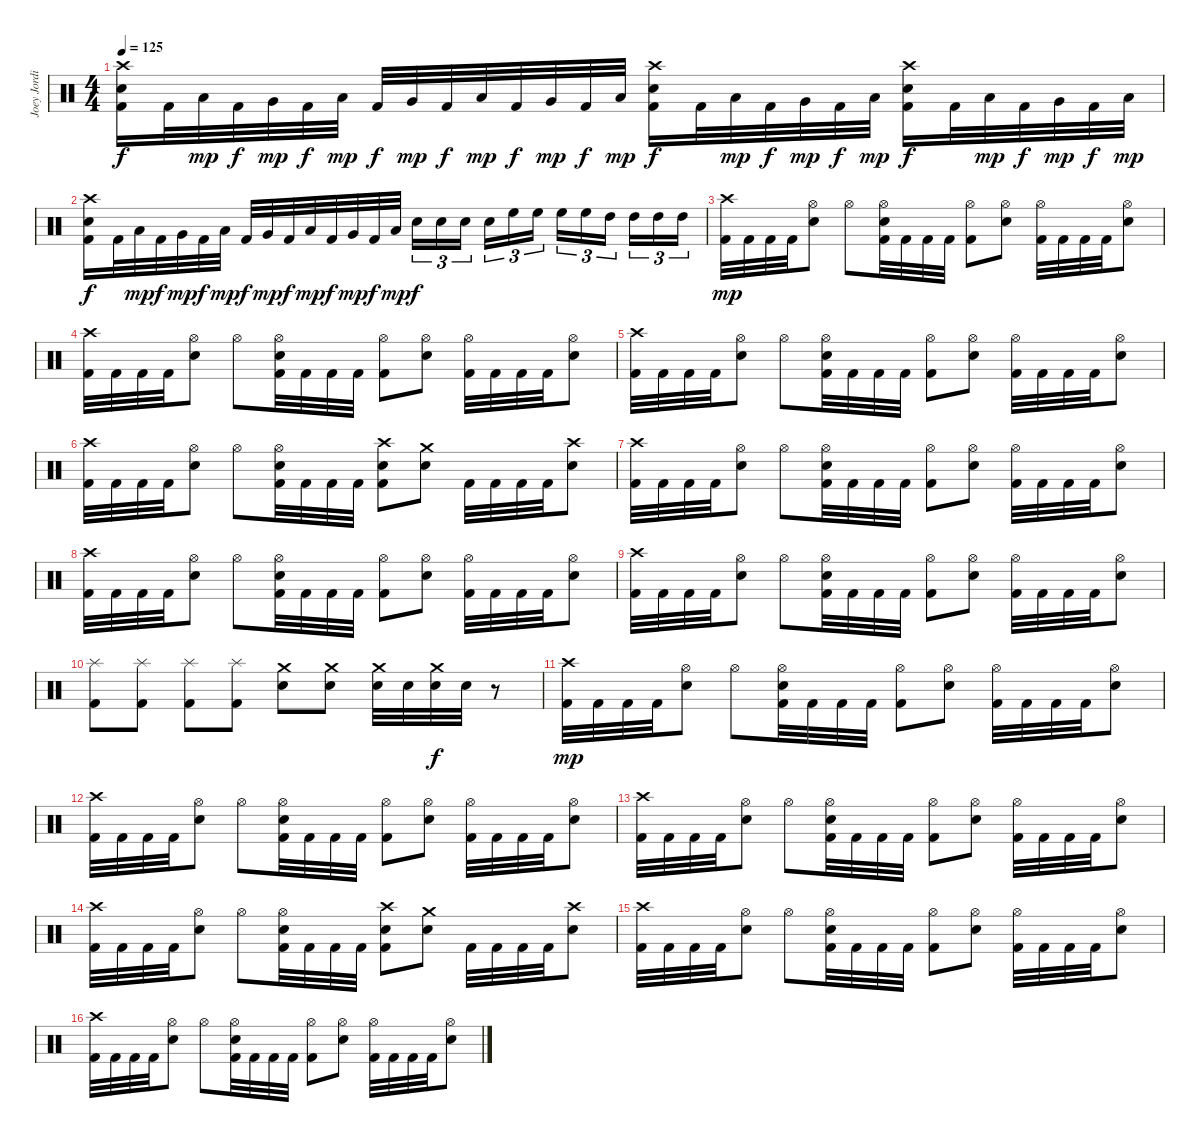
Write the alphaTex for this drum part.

\track ("Joey Jordison" "Joey Jordi") {instrument percussion}
\staff {score}
\articulation defaults
\ts (4 4)
\tempo 125
\clef neutral
\ks c
("Crash high (hit)" "Electric Snare (hit)" "Kick (hit) 2").16{dy f} "Kick (hit) 2".32 "Low Tom (hit)".32{dy mp} "Kick (hit) 2".32{dy f} "Very Low Tom (hit)".32{dy mp} "Kick (hit) 2".32{dy f} "Low Tom (hit)".32{dy mp} "Kick (hit) 2".32{dy f} "Very Low Tom (hit)".32{dy mp} "Kick (hit) 2".32{dy f} "Low Tom (hit)".32{dy mp} "Kick (hit) 2".32{dy f} "Very Low Tom (hit)".32{dy mp} "Kick (hit) 2".32{dy f} "Low Tom (hit)".32{dy mp} ("Crash high (hit)" "Electric Snare (hit)" "Kick (hit) 2").16{dy f} "Kick (hit) 2".32 "Low Tom (hit)".32{dy mp} "Kick (hit) 2".32{dy f} "Very Low Tom (hit)".32{dy mp} "Kick (hit) 2".32{dy f} "Low Tom (hit)".32{dy mp} ("Crash high (hit)" "Electric Snare (hit)" "Kick (hit) 2").16{dy f} "Kick (hit) 2".32 "Low Tom (hit)".32{dy mp} "Kick (hit) 2".32{dy f} "Very Low Tom (hit)".32{dy mp} "Kick (hit) 2".32{dy f} "Low Tom (hit)".32{dy mp} |
("Crash high (hit)" "Electric Snare (hit)" "Kick (hit) 2").16{dy f} "Kick (hit) 2".32 "Low Tom (hit)".32{dy mp} "Kick (hit) 2".32{dy f} "Very Low Tom (hit)".32{dy mp} "Kick (hit) 2".32{dy f} "Low Tom (hit)".32{dy mp} "Kick (hit) 2".32{dy f} "Very Low Tom (hit)".32{dy mp} "Kick (hit) 2".32{dy f} "Low Tom (hit)".32{dy mp} "Kick (hit) 2".32{dy f} "Very Low Tom (hit)".32{dy mp} "Kick (hit) 2".32{dy f} "Low Tom (hit)".32{dy mp} "Electric Snare (hit)".16{tu (3 2) dy f} "Electric Snare (hit)".16{tu (3 2)} "Electric Snare (hit)".16{tu (3 2) beam splitsecondary} "Electric Snare (hit)".16{tu (3 2)} "High Floor Tom (hit)".16{tu (3 2)} "High Floor Tom (hit)".16{tu (3 2)} "High Floor Tom (hit)".16{tu (3 2)} "High Floor Tom (hit)".16{tu (3 2)} "High Tom (hit)".16{tu (3 2) beam splitsecondary} "High Tom (hit)".16{tu (3 2)} "High Tom (hit)".16{tu (3 2)} "High Tom (hit)".16{tu (3 2)} |
("Crash high (hit)" "Kick (hit) 2").32{dy mp} "Kick (hit) 2".32 "Kick (hit) 2".32 "Kick (hit) 2".32 ("Hi-Hat (open)" "Electric Snare (hit)").8 "Hi-Hat (open)".8 ("Hi-Hat (open)" "Electric Snare (hit)" "Kick (hit) 2").32 "Kick (hit) 2".32 "Kick (hit) 2".32 "Kick (hit) 2".32 ("Hi-Hat (open)" "Kick (hit) 2").8 ("Hi-Hat (open)" "Electric Snare (hit)").8 ("Hi-Hat (open)" "Kick (hit) 2").32 "Kick (hit) 2".32 "Kick (hit) 2".32 "Kick (hit) 2".32 ("Hi-Hat (open)" "Electric Snare (hit)").8 |
("Crash high (hit)" "Kick (hit) 2").32 "Kick (hit) 2".32 "Kick (hit) 2".32 "Kick (hit) 2".32 ("Hi-Hat (open)" "Electric Snare (hit)").8 "Hi-Hat (open)".8 ("Hi-Hat (open)" "Electric Snare (hit)" "Kick (hit) 2").32 "Kick (hit) 2".32 "Kick (hit) 2".32 "Kick (hit) 2".32 ("Hi-Hat (open)" "Kick (hit) 2").8 ("Hi-Hat (open)" "Electric Snare (hit)").8 ("Hi-Hat (open)" "Kick (hit) 2").32 "Kick (hit) 2".32 "Kick (hit) 2".32 "Kick (hit) 2".32 ("Hi-Hat (open)" "Electric Snare (hit)").8 |
("Crash high (hit)" "Kick (hit) 2").32 "Kick (hit) 2".32 "Kick (hit) 2".32 "Kick (hit) 2".32 ("Hi-Hat (open)" "Electric Snare (hit)").8 "Hi-Hat (open)".8 ("Hi-Hat (open)" "Electric Snare (hit)" "Kick (hit) 2").32 "Kick (hit) 2".32 "Kick (hit) 2".32 "Kick (hit) 2".32 ("Hi-Hat (open)" "Kick (hit) 2").8 ("Hi-Hat (open)" "Electric Snare (hit)").8 ("Hi-Hat (open)" "Kick (hit) 2").32 "Kick (hit) 2".32 "Kick (hit) 2".32 "Kick (hit) 2".32 ("Hi-Hat (open)" "Electric Snare (hit)").8 |
("Crash high (hit)" "Kick (hit) 2").32 "Kick (hit) 2".32 "Kick (hit) 2".32 "Kick (hit) 2".32 ("Hi-Hat (open)" "Electric Snare (hit)").8 "Hi-Hat (open)".8 ("Hi-Hat (open)" "Electric Snare (hit)" "Kick (hit) 2").32 "Kick (hit) 2".32 "Kick (hit) 2".32 "Kick (hit) 2".32 ("Crash high (hit)" "Electric Snare (hit)" "Kick (hit) 2").8 ("Crash medium (hit)" "Electric Snare (hit)").8 "Kick (hit) 2".32 "Kick (hit) 2".32 "Kick (hit) 2".32 "Kick (hit) 2".32 ("Crash high (hit)" "Electric Snare (hit)").8 |
("Crash high (hit)" "Kick (hit) 2").32 "Kick (hit) 2".32 "Kick (hit) 2".32 "Kick (hit) 2".32 ("Hi-Hat (open)" "Electric Snare (hit)").8 "Hi-Hat (open)".8 ("Hi-Hat (open)" "Electric Snare (hit)" "Kick (hit) 2").32 "Kick (hit) 2".32 "Kick (hit) 2".32 "Kick (hit) 2".32 ("Hi-Hat (open)" "Kick (hit) 2").8 ("Hi-Hat (open)" "Electric Snare (hit)").8 ("Hi-Hat (open)" "Kick (hit) 2").32 "Kick (hit) 2".32 "Kick (hit) 2".32 "Kick (hit) 2".32 ("Hi-Hat (open)" "Electric Snare (hit)").8 |
("Crash high (hit)" "Kick (hit) 2").32 "Kick (hit) 2".32 "Kick (hit) 2".32 "Kick (hit) 2".32 ("Hi-Hat (open)" "Electric Snare (hit)").8 "Hi-Hat (open)".8 ("Hi-Hat (open)" "Electric Snare (hit)" "Kick (hit) 2").32 "Kick (hit) 2".32 "Kick (hit) 2".32 "Kick (hit) 2".32 ("Hi-Hat (open)" "Kick (hit) 2").8 ("Hi-Hat (open)" "Electric Snare (hit)").8 ("Hi-Hat (open)" "Kick (hit) 2").32 "Kick (hit) 2".32 "Kick (hit) 2".32 "Kick (hit) 2".32 ("Hi-Hat (open)" "Electric Snare (hit)").8 |
("Crash high (hit)" "Kick (hit) 2").32 "Kick (hit) 2".32 "Kick (hit) 2".32 "Kick (hit) 2".32 ("Hi-Hat (open)" "Electric Snare (hit)").8 "Hi-Hat (open)".8 ("Hi-Hat (open)" "Electric Snare (hit)" "Kick (hit) 2").32 "Kick (hit) 2".32 "Kick (hit) 2".32 "Kick (hit) 2".32 ("Hi-Hat (open)" "Kick (hit) 2").8 ("Hi-Hat (open)" "Electric Snare (hit)").8 ("Hi-Hat (open)" "Kick (hit) 2").32 "Kick (hit) 2".32 "Kick (hit) 2".32 "Kick (hit) 2".32 ("Hi-Hat (open)" "Electric Snare (hit)").8 |
("Splash (hit)" "Kick (hit) 2").8 ("Splash (hit)" "Kick (hit) 2").8 ("Splash (hit)" "Kick (hit) 2").8 ("Splash (hit)" "Kick (hit) 2").8 ("Crash medium (hit)" "Electric Snare (hit)").8 ("Crash medium (hit)" "Electric Snare (hit)").8 ("Crash medium (hit)" "Electric Snare (hit)").32 "Electric Snare (hit)".32 ("Crash medium (hit)" "Electric Snare (hit)").32{dy f} "Electric Snare (hit)".32 r.8 |
("Crash high (hit)" "Kick (hit) 2").32{dy mp} "Kick (hit) 2".32 "Kick (hit) 2".32 "Kick (hit) 2".32 ("Hi-Hat (open)" "Electric Snare (hit)").8 "Hi-Hat (open)".8 ("Hi-Hat (open)" "Electric Snare (hit)" "Kick (hit) 2").32 "Kick (hit) 2".32 "Kick (hit) 2".32 "Kick (hit) 2".32 ("Hi-Hat (open)" "Kick (hit) 2").8 ("Hi-Hat (open)" "Electric Snare (hit)").8 ("Hi-Hat (open)" "Kick (hit) 2").32 "Kick (hit) 2".32 "Kick (hit) 2".32 "Kick (hit) 2".32 ("Hi-Hat (open)" "Electric Snare (hit)").8 |
("Crash high (hit)" "Kick (hit) 2").32 "Kick (hit) 2".32 "Kick (hit) 2".32 "Kick (hit) 2".32 ("Hi-Hat (open)" "Electric Snare (hit)").8 "Hi-Hat (open)".8 ("Hi-Hat (open)" "Electric Snare (hit)" "Kick (hit) 2").32 "Kick (hit) 2".32 "Kick (hit) 2".32 "Kick (hit) 2".32 ("Hi-Hat (open)" "Kick (hit) 2").8 ("Hi-Hat (open)" "Electric Snare (hit)").8 ("Hi-Hat (open)" "Kick (hit) 2").32 "Kick (hit) 2".32 "Kick (hit) 2".32 "Kick (hit) 2".32 ("Hi-Hat (open)" "Electric Snare (hit)").8 |
("Crash high (hit)" "Kick (hit) 2").32 "Kick (hit) 2".32 "Kick (hit) 2".32 "Kick (hit) 2".32 ("Hi-Hat (open)" "Electric Snare (hit)").8 "Hi-Hat (open)".8 ("Hi-Hat (open)" "Electric Snare (hit)" "Kick (hit) 2").32 "Kick (hit) 2".32 "Kick (hit) 2".32 "Kick (hit) 2".32 ("Hi-Hat (open)" "Kick (hit) 2").8 ("Hi-Hat (open)" "Electric Snare (hit)").8 ("Hi-Hat (open)" "Kick (hit) 2").32 "Kick (hit) 2".32 "Kick (hit) 2".32 "Kick (hit) 2".32 ("Hi-Hat (open)" "Electric Snare (hit)").8 |
("Crash high (hit)" "Kick (hit) 2").32 "Kick (hit) 2".32 "Kick (hit) 2".32 "Kick (hit) 2".32 ("Hi-Hat (open)" "Electric Snare (hit)").8 "Hi-Hat (open)".8 ("Hi-Hat (open)" "Electric Snare (hit)" "Kick (hit) 2").32 "Kick (hit) 2".32 "Kick (hit) 2".32 "Kick (hit) 2".32 ("Crash high (hit)" "Electric Snare (hit)" "Kick (hit) 2").8 ("Crash medium (hit)" "Electric Snare (hit)").8 "Kick (hit) 2".32 "Kick (hit) 2".32 "Kick (hit) 2".32 "Kick (hit) 2".32 ("Crash high (hit)" "Electric Snare (hit)").8 |
("Crash high (hit)" "Kick (hit) 2").32 "Kick (hit) 2".32 "Kick (hit) 2".32 "Kick (hit) 2".32 ("Hi-Hat (open)" "Electric Snare (hit)").8 "Hi-Hat (open)".8 ("Hi-Hat (open)" "Electric Snare (hit)" "Kick (hit) 2").32 "Kick (hit) 2".32 "Kick (hit) 2".32 "Kick (hit) 2".32 ("Hi-Hat (open)" "Kick (hit) 2").8 ("Hi-Hat (open)" "Electric Snare (hit)").8 ("Hi-Hat (open)" "Kick (hit) 2").32 "Kick (hit) 2".32 "Kick (hit) 2".32 "Kick (hit) 2".32 ("Hi-Hat (open)" "Electric Snare (hit)").8 |
("Crash high (hit)" "Kick (hit) 2").32 "Kick (hit) 2".32 "Kick (hit) 2".32 "Kick (hit) 2".32 ("Hi-Hat (open)" "Electric Snare (hit)").8 "Hi-Hat (open)".8 ("Hi-Hat (open)" "Electric Snare (hit)" "Kick (hit) 2").32 "Kick (hit) 2".32 "Kick (hit) 2".32 "Kick (hit) 2".32 ("Hi-Hat (open)" "Kick (hit) 2").8 ("Hi-Hat (open)" "Electric Snare (hit)").8 ("Hi-Hat (open)" "Kick (hit) 2").32 "Kick (hit) 2".32 "Kick (hit) 2".32 "Kick (hit) 2".32 ("Hi-Hat (open)" "Electric Snare (hit)").8
